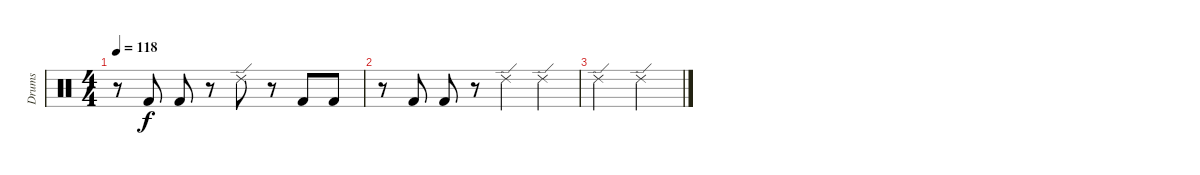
\track ("Drums" "Drums") {instrument percussion}
\staff {score}
\articulation defaults
\ts (4 4)
\tempo 118
\clef neutral
\ks c
r.8{dy f} "Kick (hit) 2".8 "Kick (hit) 2".8 r.8 "Ride (edge) 2".8 r.8 "Kick (hit) 2".8 "Kick (hit) 2".8 |
r.8 "Kick (hit) 2".8 "Kick (hit) 2".8 r.8 "Ride (edge) 2".4 "Ride (edge) 2".4 |
"Ride (edge) 2".2 "Ride (edge) 2".2
